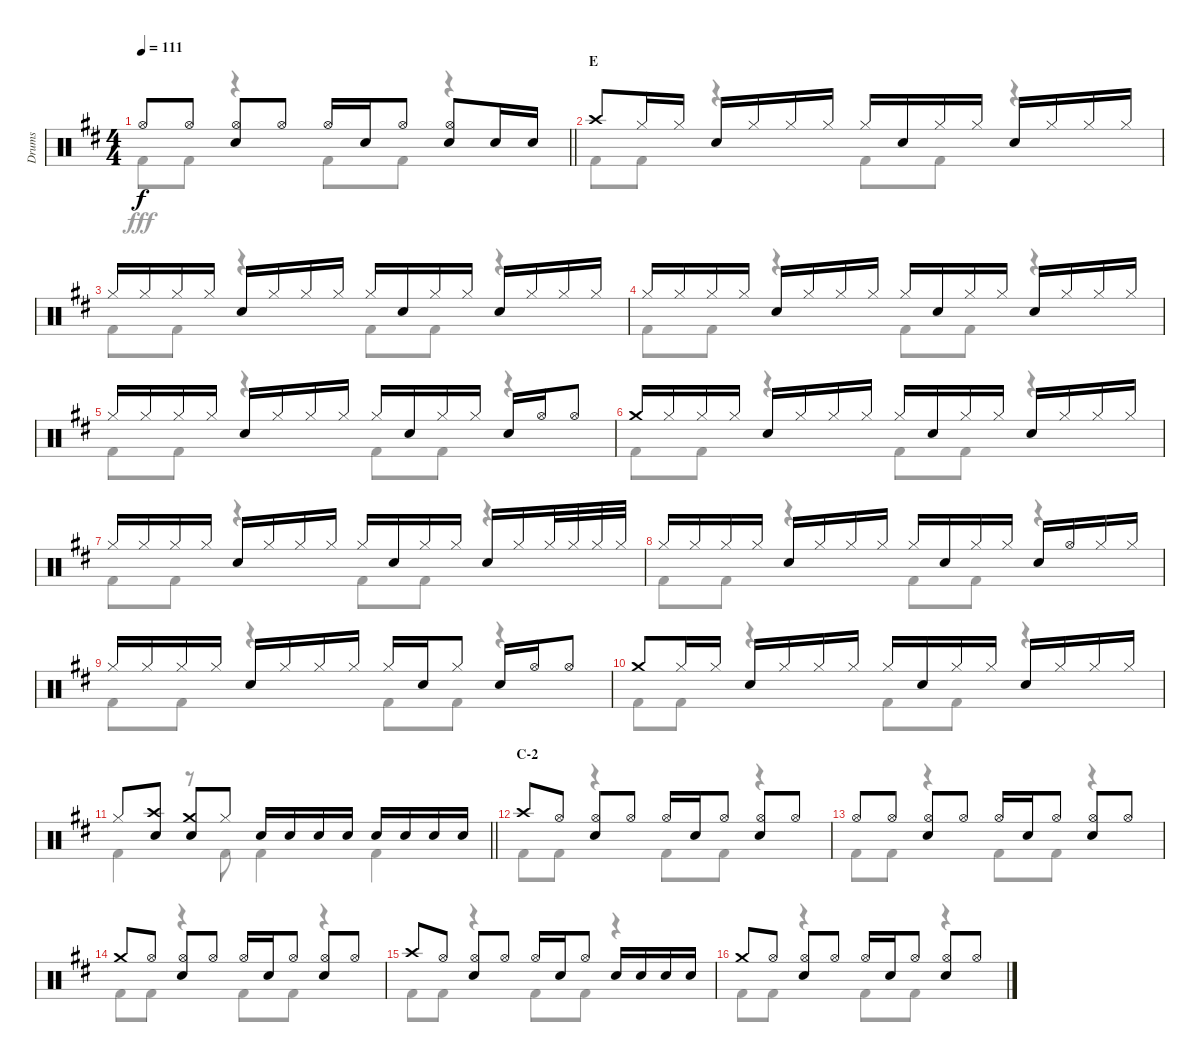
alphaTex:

\track ("Drums" "Drums") {instrument percussion}
\staff {score}
\articulation defaults
\voice
\ts (4 4)
\tempo 111
\clef neutral
\barLineRight lightlight
\ks d "Hi-Hat (open)".8{dy f} "Hi-Hat (open)".8
("Hi-Hat (open)" "Snare (hit) 2").8 "Hi-Hat (open)".8 "Hi-Hat (open)".16 "Snare (hit) 2".16 "Hi-Hat (open)".8 ("Hi-Hat (open)" "Snare (hit) 2").8 "Snare (hit) 2".16 "Snare (hit) 2".16 |
\section ("" "E")
"Crash high (hit)".8 "Hi-Hat (closed)".16 "Hi-Hat (closed)".16 "Snare (hit) 2".16 "Hi-Hat (closed)".16 "Hi-Hat (closed)".16 "Hi-Hat (closed)".16 "Hi-Hat (closed)".16 "Snare (hit) 2".16 "Hi-Hat (closed)".16 "Hi-Hat (closed)".16 "Snare (hit) 2".16 "Hi-Hat (closed)".16 "Hi-Hat (closed)".16 "Hi-Hat (closed)".16 |
"Hi-Hat (closed)".16 "Hi-Hat (closed)".16 "Hi-Hat (closed)".16 "Hi-Hat (closed)".16 "Snare (hit) 2".16 "Hi-Hat (closed)".16 "Hi-Hat (closed)".16 "Hi-Hat (closed)".16 "Hi-Hat (closed)".16 "Snare (hit) 2".16 "Hi-Hat (closed)".16 "Hi-Hat (closed)".16 "Snare (hit) 2".16 "Hi-Hat (closed)".16 "Hi-Hat (closed)".16 "Hi-Hat (closed)".16 |
"Hi-Hat (closed)".16 "Hi-Hat (closed)".16 "Hi-Hat (closed)".16 "Hi-Hat (closed)".16 "Snare (hit) 2".16 "Hi-Hat (closed)".16 "Hi-Hat (closed)".16 "Hi-Hat (closed)".16 "Hi-Hat (closed)".16 "Snare (hit) 2".16 "Hi-Hat (closed)".16 "Hi-Hat (closed)".16 "Snare (hit) 2".16 "Hi-Hat (closed)".16 "Hi-Hat (closed)".16 "Hi-Hat (closed)".16 |
"Hi-Hat (closed)".16 "Hi-Hat (closed)".16 "Hi-Hat (closed)".16 "Hi-Hat (closed)".16 "Snare (hit) 2".16 "Hi-Hat (closed)".16 "Hi-Hat (closed)".16 "Hi-Hat (closed)".16 "Hi-Hat (closed)".16 "Snare (hit) 2".16 "Hi-Hat (closed)".16 "Hi-Hat (closed)".16 "Snare (hit) 2".16 "Hi-Hat (open)".16 "Hi-Hat (open)".8 |
"Crash medium (hit)".16 "Hi-Hat (closed)".16 "Hi-Hat (closed)".16 "Hi-Hat (closed)".16 "Snare (hit) 2".16 "Hi-Hat (closed)".16 "Hi-Hat (closed)".16 "Hi-Hat (closed)".16 "Hi-Hat (closed)".16 "Snare (hit) 2".16 "Hi-Hat (closed)".16 "Hi-Hat (closed)".16 "Snare (hit) 2".16 "Hi-Hat (closed)".16 "Hi-Hat (closed)".16 "Hi-Hat (closed)".16 |
"Hi-Hat (closed)".16 "Hi-Hat (closed)".16 "Hi-Hat (closed)".16 "Hi-Hat (closed)".16 "Snare (hit) 2".16 "Hi-Hat (closed)".16 "Hi-Hat (closed)".16 "Hi-Hat (closed)".16 "Hi-Hat (closed)".16 "Snare (hit) 2".16 "Hi-Hat (closed)".16 "Hi-Hat (closed)".16 "Snare (hit) 2".16 "Hi-Hat (closed)".16 "Hi-Hat (closed)".32 "Hi-Hat (closed)".32 "Hi-Hat (closed)".32 "Hi-Hat (closed)".32 |
"Hi-Hat (closed)".16 "Hi-Hat (closed)".16 "Hi-Hat (closed)".16 "Hi-Hat (closed)".16 "Snare (hit) 2".16 "Hi-Hat (closed)".16 "Hi-Hat (closed)".16 "Hi-Hat (closed)".16 "Hi-Hat (closed)".16 "Snare (hit) 2".16 "Hi-Hat (closed)".16 "Hi-Hat (closed)".16 "Snare (hit) 2".16 "Hi-Hat (open)".16 "Hi-Hat (closed)".16 "Hi-Hat (closed)".16 |
"Hi-Hat (closed)".16 "Hi-Hat (closed)".16 "Hi-Hat (closed)".16 "Hi-Hat (closed)".16 "Snare (hit) 2".16 "Hi-Hat (closed)".16 "Hi-Hat (closed)".16 "Hi-Hat (closed)".16 "Hi-Hat (closed)".16 "Snare (hit) 2".16 "Hi-Hat (closed)".8 "Snare (hit) 2".16 "Hi-Hat (open)".16 "Hi-Hat (open)".8 |
"Crash medium (hit)".8 "Hi-Hat (closed)".16 "Hi-Hat (closed)".16 "Snare (hit) 2".16 "Hi-Hat (closed)".16 "Hi-Hat (closed)".16 "Hi-Hat (closed)".16 "Hi-Hat (closed)".16 "Snare (hit) 2".16 "Hi-Hat (closed)".16 "Hi-Hat (closed)".16 "Snare (hit) 2".16 "Hi-Hat (closed)".16 "Hi-Hat (closed)".16 "Hi-Hat (closed)".16 |
\barLineRight lightlight "Hi-Hat (closed)".8
("Crash high (hit)" "Snare (hit) 2").8 ("Crash medium (hit)" "Snare (hit) 2").8 "Hi-Hat (closed)".8 "Snare (hit) 2".16 "Snare (hit) 2".16 "Snare (hit) 2".16 "Snare (hit) 2".16 "Snare (hit) 2".16 "Snare (hit) 2".16 "Snare (hit) 2".16 "Snare (hit) 2".16 |
\section ("" "C-2")
"Crash high (hit)".8 "Hi-Hat (open)".8 ("Hi-Hat (open)" "Snare (hit) 2").8 "Hi-Hat (open)".8 "Hi-Hat (open)".16 "Snare (hit) 2".16 "Hi-Hat (open)".8 ("Hi-Hat (open)" "Snare (hit) 2").8 "Hi-Hat (open)".8 |
"Hi-Hat (open)".8 "Hi-Hat (open)".8 ("Hi-Hat (open)" "Snare (hit) 2").8 "Hi-Hat (open)".8 "Hi-Hat (open)".16 "Snare (hit) 2".16 "Hi-Hat (open)".8 ("Hi-Hat (open)" "Snare (hit) 2").8 "Hi-Hat (open)".8 |
"Crash medium (hit)".8 "Hi-Hat (open)".8 ("Hi-Hat (open)" "Snare (hit) 2").8 "Hi-Hat (open)".8 "Hi-Hat (open)".16 "Snare (hit) 2".16 "Hi-Hat (open)".8 ("Hi-Hat (open)" "Snare (hit) 2").8 "Hi-Hat (open)".8 |
"Crash high (hit)".8 "Hi-Hat (open)".8 ("Hi-Hat (open)" "Snare (hit) 2").8 "Hi-Hat (open)".8 "Hi-Hat (open)".16 "Snare (hit) 2".16 "Hi-Hat (open)".8 "Snare (hit) 2".16 "Snare (hit) 2".16 "Snare (hit) 2".16 "Snare (hit) 2".16 |
"Crash medium (hit)".8 "Hi-Hat (open)".8 ("Hi-Hat (open)" "Snare (hit) 2").8 "Hi-Hat (open)".8 "Hi-Hat (open)".16 "Snare (hit) 2".16 "Hi-Hat (open)".8 ("Hi-Hat (open)" "Snare (hit) 2").8 "Hi-Hat (open)".8
\voice
\clef neutral
\ottava regular
\simile none
\barLineRight lightlight
\ks d "Kick (hit) 2".8{dy fff} "Kick (hit) 2".8
r.4 "Kick (hit) 2".8 "Kick (hit) 2".8 r.4 |
"Kick (hit) 2".8 "Kick (hit) 2".8 r.4 "Kick (hit) 2".8 "Kick (hit) 2".8 r.4 |
"Kick (hit) 2".8 "Kick (hit) 2".8 r.4 "Kick (hit) 2".8 "Kick (hit) 2".8 r.4 |
"Kick (hit) 2".8 "Kick (hit) 2".8 r.4 "Kick (hit) 2".8 "Kick (hit) 2".8 r.4 |
"Kick (hit) 2".8 "Kick (hit) 2".8 r.4 "Kick (hit) 2".8 "Kick (hit) 2".8 r.4 |
"Kick (hit) 2".8 "Kick (hit) 2".8 r.4 "Kick (hit) 2".8 "Kick (hit) 2".8 r.4 |
"Kick (hit) 2".8 "Kick (hit) 2".8 r.4 "Kick (hit) 2".8 "Kick (hit) 2".8 r.4 |
"Kick (hit) 2".8 "Kick (hit) 2".8 r.4 "Kick (hit) 2".8 "Kick (hit) 2".8 r.4 |
"Kick (hit) 2".8 "Kick (hit) 2".8 r.4 "Kick (hit) 2".8 "Kick (hit) 2".8 r.4 |
"Kick (hit) 2".8 "Kick (hit) 2".8 r.4 "Kick (hit) 2".8 "Kick (hit) 2".8 r.4 |
\barLineRight lightlight "Kick (hit) 2".4
r.8 "Kick (hit) 2".8 "Kick (hit) 2".4 "Kick (hit) 2".4 |
"Kick (hit) 2".8 "Kick (hit) 2".8 r.4 "Kick (hit) 2".8 "Kick (hit) 2".8 r.4 |
"Kick (hit) 2".8 "Kick (hit) 2".8 r.4 "Kick (hit) 2".8 "Kick (hit) 2".8 r.4 |
"Kick (hit) 2".8 "Kick (hit) 2".8 r.4 "Kick (hit) 2".8 "Kick (hit) 2".8 r.4 |
"Kick (hit) 2".8 "Kick (hit) 2".8 r.4 "Kick (hit) 2".8 "Kick (hit) 2".8 r.4 |
"Kick (hit) 2".8 "Kick (hit) 2".8 r.4 "Kick (hit) 2".8 "Kick (hit) 2".8 r.4
